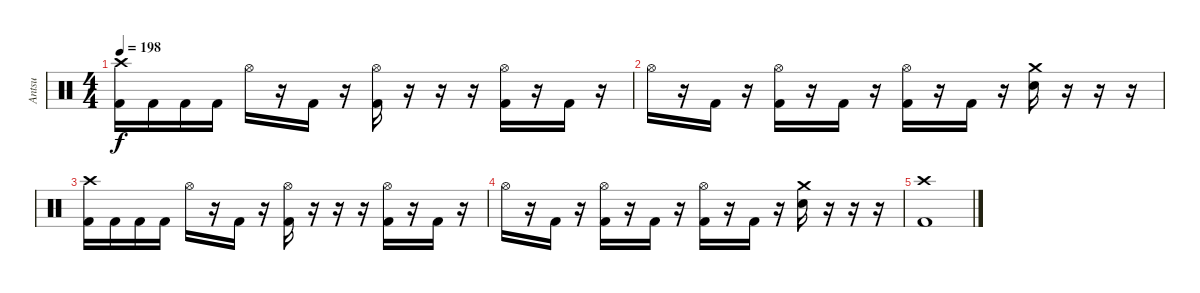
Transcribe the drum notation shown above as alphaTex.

\track ("Antsu" "Antsu") {instrument percussion}
\staff {score}
\articulation defaults
\ts (4 4)
\tempo 198
\clef neutral
\ks c
("Crash high (hit)" "Kick (hit) 2").16{dy f} "Kick (hit) 2".16 "Kick (hit) 2".16 "Kick (hit) 2".16 "Hi-Hat (open)".16 r.16 "Kick (hit) 2".16 r.16 ("Hi-Hat (open)" "Kick (hit) 2").16 r.16 r.16 r.16 ("Hi-Hat (open)" "Kick (hit) 2").16 r.16 "Kick (hit) 2".16 r.16 |
"Hi-Hat (open)".16 r.16 "Kick (hit) 2".16 r.16 ("Hi-Hat (open)" "Kick (hit) 2").16 r.16 "Kick (hit) 2".16 r.16 ("Hi-Hat (open)" "Kick (hit) 2").16 r.16 "Kick (hit) 2".16 r.16 ("Crash medium (hit)" "Snare (hit) 2").16 r.16 r.16 r.16 |
("Crash high (hit)" "Kick (hit) 2").16 "Kick (hit) 2".16 "Kick (hit) 2".16 "Kick (hit) 2".16 "Hi-Hat (open)".16 r.16 "Kick (hit) 2".16 r.16 ("Hi-Hat (open)" "Kick (hit) 2").16 r.16 r.16 r.16 ("Hi-Hat (open)" "Kick (hit) 2").16 r.16 "Kick (hit) 2".16 r.16 |
"Hi-Hat (open)".16 r.16 "Kick (hit) 2".16 r.16 ("Hi-Hat (open)" "Kick (hit) 2").16 r.16 "Kick (hit) 2".16 r.16 ("Hi-Hat (open)" "Kick (hit) 2").16 r.16 "Kick (hit) 2".16 r.16 ("Crash medium (hit)" "Snare (hit) 2").16 r.16 r.16 r.16 |
("Crash high (hit)" "Kick (hit) 2").1
